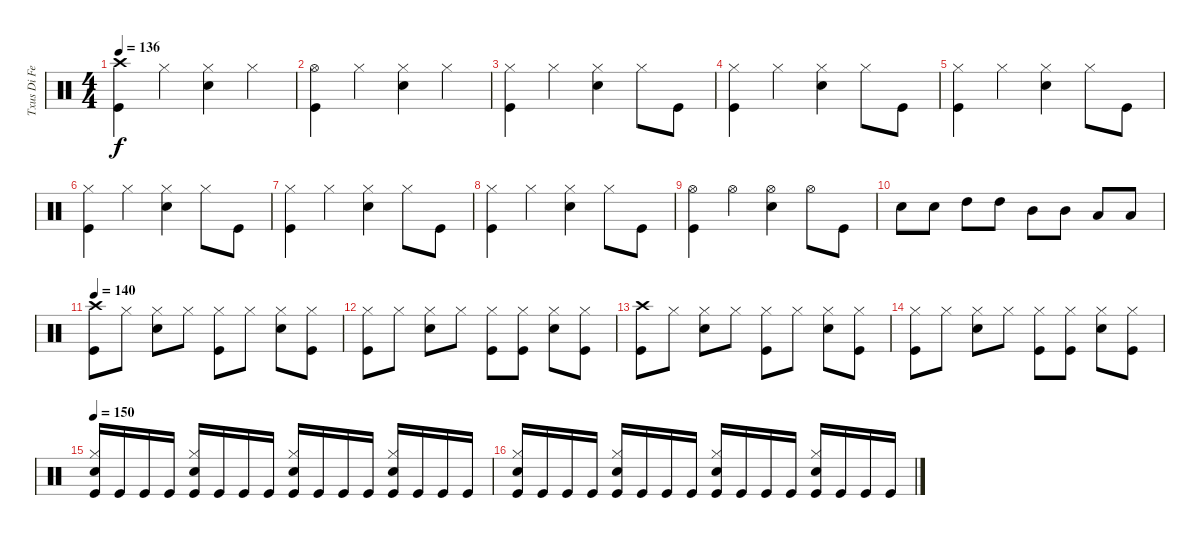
\track ("Txus Di Fellatio" "Txus Di Fe") {instrument percussion}
\staff {score}
\articulation defaults
\ts (4 4)
\tempo 136
\clef neutral
\ks c
("Crash high (hit)" "Kick (hit)").4{dy f} "Hi-Hat (closed)".4 ("Hi-Hat (closed)" "Snare (hit) 2").4 "Hi-Hat (closed)".4 |
("Hi-Hat (open)" "Kick (hit)").4 "Hi-Hat (closed)".4 ("Hi-Hat (closed)" "Snare (hit) 2").4 "Hi-Hat (closed)".4 |
("Hi-Hat (closed)" "Kick (hit)").4 "Hi-Hat (closed)".4 ("Hi-Hat (closed)" "Snare (hit) 2").4 "Hi-Hat (closed)".8 "Kick (hit)".8 |
("Hi-Hat (closed)" "Kick (hit)").4 "Hi-Hat (closed)".4 ("Hi-Hat (closed)" "Snare (hit) 2").4 "Hi-Hat (closed)".8 "Kick (hit)".8 |
("Hi-Hat (closed)" "Kick (hit)").4 "Hi-Hat (closed)".4 ("Hi-Hat (closed)" "Snare (hit) 2").4 "Hi-Hat (closed)".8 "Kick (hit)".8 |
("Hi-Hat (closed)" "Kick (hit)").4 "Hi-Hat (closed)".4 ("Hi-Hat (closed)" "Snare (hit) 2").4 "Hi-Hat (closed)".8 "Kick (hit)".8 |
("Hi-Hat (closed)" "Kick (hit)").4 "Hi-Hat (closed)".4 ("Hi-Hat (closed)" "Snare (hit) 2").4 "Hi-Hat (closed)".8 "Kick (hit)".8 |
("Hi-Hat (closed)" "Kick (hit)").4 "Hi-Hat (closed)".4 ("Hi-Hat (closed)" "Snare (hit) 2").4 "Hi-Hat (closed)".8 "Kick (hit)".8 |
("Hi-Hat (open)" "Kick (hit)").4 "Hi-Hat (open)".4 ("Hi-Hat (open)" "Snare (hit) 2").4 "Hi-Hat (open)".8 "Kick (hit)".8 |
"Electric Snare (hit)".8 "Electric Snare (hit)".8 "High Tom (hit)".8 "High Tom (hit)".8 "Mid Tom (hit)".8 "Mid Tom (hit)".8 "Low Tom (hit)".8 "Low Tom (hit)".8 |
\tempo 140
("Crash high (hit)" "Kick (hit)").8 "Hi-Hat (closed)".8 ("Hi-Hat (closed)" "Snare (hit) 2").8 "Hi-Hat (closed)".8 ("Hi-Hat (closed)" "Kick (hit)").8 "Hi-Hat (closed)".8 ("Hi-Hat (closed)" "Snare (hit) 2").8 ("Hi-Hat (closed)" "Kick (hit)").8 |
("Hi-Hat (closed)" "Kick (hit)").8 "Hi-Hat (closed)".8 ("Hi-Hat (closed)" "Snare (hit) 2").8 "Hi-Hat (closed)".8 ("Hi-Hat (closed)" "Kick (hit)").8 ("Hi-Hat (closed)" "Kick (hit)").8 ("Hi-Hat (closed)" "Snare (hit) 2").8 ("Hi-Hat (closed)" "Kick (hit)").8 |
("Crash high (hit)" "Kick (hit)").8 "Hi-Hat (closed)".8 ("Hi-Hat (closed)" "Snare (hit) 2").8 "Hi-Hat (closed)".8 ("Hi-Hat (closed)" "Kick (hit)").8 "Hi-Hat (closed)".8 ("Hi-Hat (closed)" "Snare (hit) 2").8 ("Hi-Hat (closed)" "Kick (hit)").8 |
("Hi-Hat (closed)" "Kick (hit)").8 "Hi-Hat (closed)".8 ("Hi-Hat (closed)" "Snare (hit) 2").8 "Hi-Hat (closed)".8 ("Hi-Hat (closed)" "Kick (hit)").8 ("Hi-Hat (closed)" "Kick (hit)").8 ("Hi-Hat (closed)" "Snare (hit) 2").8 ("Hi-Hat (closed)" "Kick (hit)").8 |
\tempo 150
("Hi-Hat (closed)" "Snare (hit) 2" "Kick (hit)").16 "Kick (hit)".16 "Kick (hit)".16 "Kick (hit)".16 ("Hi-Hat (closed)" "Snare (hit) 2" "Kick (hit)").16 "Kick (hit)".16 "Kick (hit)".16 "Kick (hit)".16 ("Hi-Hat (closed)" "Snare (hit) 2" "Kick (hit)").16 "Kick (hit)".16 "Kick (hit)".16 "Kick (hit)".16 ("Hi-Hat (closed)" "Snare (hit) 2" "Kick (hit)").16 "Kick (hit)".16 "Kick (hit)".16 "Kick (hit)".16 |
("Hi-Hat (closed)" "Snare (hit) 2" "Kick (hit)").16 "Kick (hit)".16 "Kick (hit)".16 "Kick (hit)".16 ("Hi-Hat (closed)" "Snare (hit) 2" "Kick (hit)").16 "Kick (hit)".16 "Kick (hit)".16 "Kick (hit)".16 ("Hi-Hat (closed)" "Snare (hit) 2" "Kick (hit)").16 "Kick (hit)".16 "Kick (hit)".16 "Kick (hit)".16 ("Hi-Hat (closed)" "Snare (hit) 2" "Kick (hit)").16 "Kick (hit)".16 "Kick (hit)".16 "Kick (hit)".16
